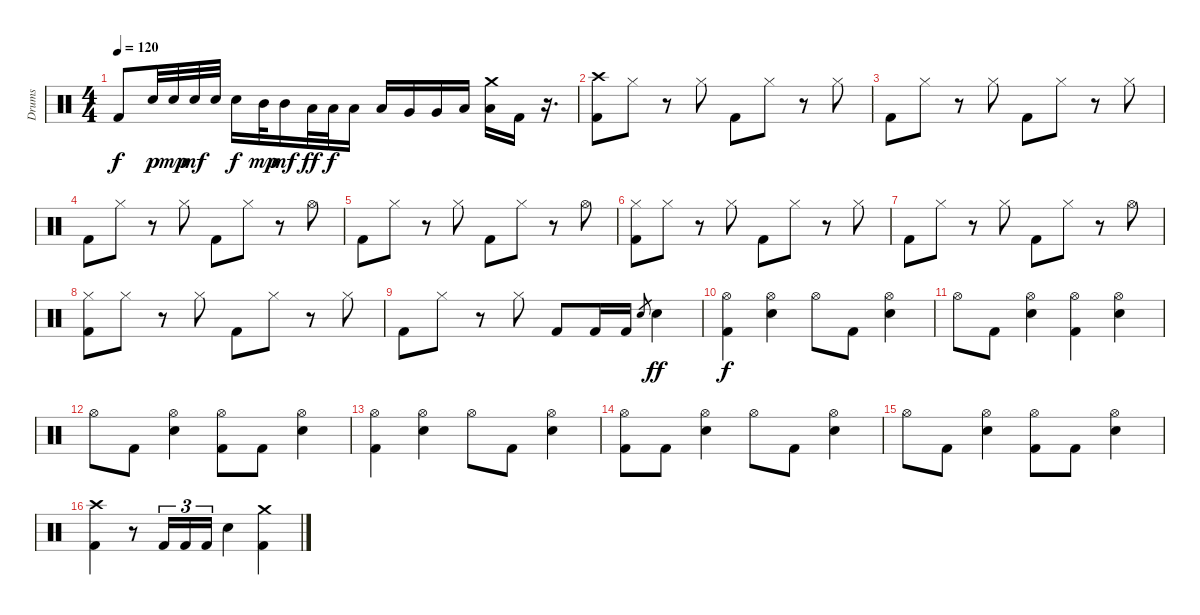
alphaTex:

\track ("Drums" "Drums") {instrument percussion}
\staff {score}
\articulation defaults
\ts (4 4)
\tempo 120
\clef neutral
\ks c "Kick (hit) 2".8{dy f} "Electric Snare (hit)".32{dy p} "Electric Snare (hit)".32{dy mp} "Electric Snare (hit)".32{dy mf} "Electric Snare (hit)".32 "Electric Snare (hit)".16{dy f} "Mid Tom (hit)".32{dy mp} "Mid Tom (hit)".16{dy mf} "Low Tom (hit)".32{dy ff} "Low Tom (hit)".32{dy f} "Low Tom (hit)".16 "Low Tom (hit)".16 "Very Low Tom (hit)".16 "Very Low Tom (hit)".16 "Low Floor Tom (hit)".16
("Crash medium (hit)" "Low Floor Tom (hit)").16 "Kick (hit) 2".16 r.16{d} |
("Crash high (hit)" "Kick (hit) 2").8 "Hi-Hat (closed)".8 r.8 "Hi-Hat (closed)".8 "Kick (hit) 2".8 "Hi-Hat (closed)".8 r.8 "Hi-Hat (closed)".8 |
"Kick (hit) 2".8 "Hi-Hat (closed)".8 r.8 "Hi-Hat (closed)".8 "Kick (hit) 2".8 "Hi-Hat (closed)".8 r.8 "Hi-Hat (closed)".8 |
"Kick (hit) 2".8 "Hi-Hat (closed)".8 r.8 "Hi-Hat (closed)".8 "Kick (hit) 2".8 "Hi-Hat (closed)".8 r.8 "Hi-Hat (open)".8 |
"Kick (hit) 2".8 "Hi-Hat (closed)".8 r.8 "Hi-Hat (closed)".8 "Kick (hit) 2".8 "Hi-Hat (closed)".8 r.8 "Hi-Hat (open)".8 |
("Hi-Hat (closed)" "Kick (hit) 2").8 "Hi-Hat (closed)".8 r.8 "Hi-Hat (closed)".8 "Kick (hit) 2".8 "Hi-Hat (closed)".8 r.8 "Hi-Hat (closed)".8 |
"Kick (hit) 2".8 "Hi-Hat (closed)".8 r.8 "Hi-Hat (closed)".8 "Kick (hit) 2".8 "Hi-Hat (closed)".8 r.8 "Hi-Hat (open)".8 |
("Hi-Hat (closed)" "Kick (hit) 2").8 "Hi-Hat (closed)".8 r.8 "Hi-Hat (closed)".8 "Kick (hit) 2".8 "Hi-Hat (closed)".8 r.8 "Hi-Hat (closed)".8 |
"Kick (hit) 2".8 "Hi-Hat (closed)".8 r.8 "Hi-Hat (closed)".8 "Kick (hit) 2".8 "Kick (hit) 2".16 "Kick (hit) 2".16 "Electric Snare (hit)".8{gr} "Electric Snare (hit)".4{dy ff} |
("Hi-Hat (open)" "Kick (hit) 2").4{dy f} ("Hi-Hat (open)" "Electric Snare (hit)").4 "Hi-Hat (open)".8 "Kick (hit) 2".8 ("Hi-Hat (open)" "Electric Snare (hit)").4 |
"Hi-Hat (open)".8 "Kick (hit) 2".8 ("Hi-Hat (open)" "Electric Snare (hit)").4 ("Hi-Hat (open)" "Kick (hit) 2").4 ("Hi-Hat (open)" "Electric Snare (hit)").4 |
"Hi-Hat (open)".8 "Kick (hit) 2".8 ("Hi-Hat (open)" "Electric Snare (hit)").4 ("Hi-Hat (open)" "Kick (hit) 2").8 "Kick (hit) 2".8 ("Hi-Hat (open)" "Electric Snare (hit)").4 |
("Hi-Hat (open)" "Kick (hit) 2").4 ("Hi-Hat (open)" "Electric Snare (hit)").4 "Hi-Hat (open)".8 "Kick (hit) 2".8 ("Hi-Hat (open)" "Electric Snare (hit)").4 |
("Hi-Hat (open)" "Kick (hit) 2").8 "Kick (hit) 2".8 ("Hi-Hat (open)" "Electric Snare (hit)").4 "Hi-Hat (open)".8 "Kick (hit) 2".8 ("Hi-Hat (open)" "Electric Snare (hit)").4 |
"Hi-Hat (open)".8 "Kick (hit) 2".8 ("Hi-Hat (open)" "Electric Snare (hit)").4 ("Hi-Hat (open)" "Kick (hit) 2").8 "Kick (hit) 2".8 ("Hi-Hat (open)" "Electric Snare (hit)").4 |
("Crash high (hit)" "Kick (hit) 2").4 r.8 "Kick (hit) 2".16{tu (3 2)} "Kick (hit) 2".16{tu (3 2)} "Kick (hit) 2".16{tu (3 2)} "Electric Snare (hit)".4 ("Crash medium (hit)" "Kick (hit) 2").4
